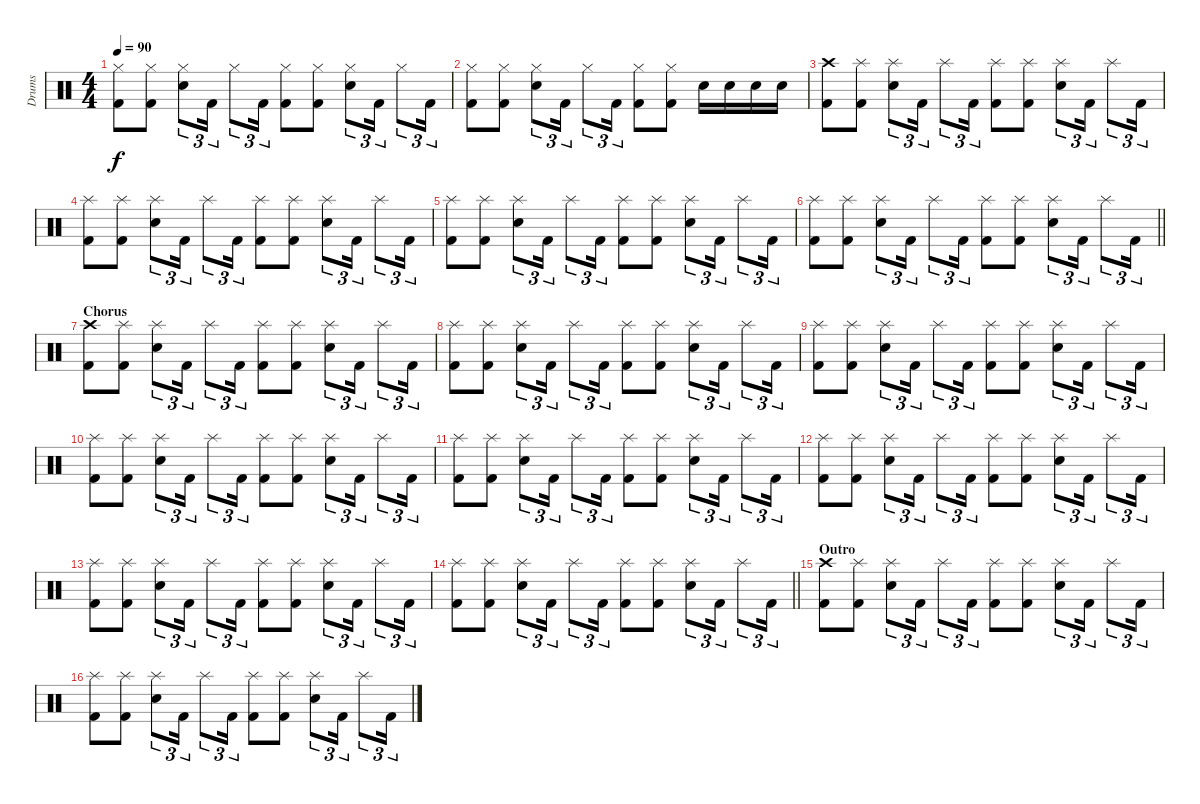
\track ("Drums" "Drums") {instrument percussion}
\staff {score}
\articulation defaults
\ts (4 4)
\tempo 90
\clef neutral
\ks c
("Hi-Hat (closed)" "Kick (hit) 2").8{dy f} ("Hi-Hat (closed)" "Kick (hit) 2").8 ("Hi-Hat (closed)" "Electric Snare (hit)").8{tu (3 2)} "Kick (hit) 2".16{tu (3 2)} "Hi-Hat (closed)".8{tu (3 2)} "Kick (hit) 2".16{tu (3 2)} ("Hi-Hat (closed)" "Kick (hit) 2").8 ("Hi-Hat (closed)" "Kick (hit) 2").8 ("Hi-Hat (closed)" "Electric Snare (hit)").8{tu (3 2)} "Kick (hit) 2".16{tu (3 2)} "Hi-Hat (closed)".8{tu (3 2)} "Kick (hit) 2".16{tu (3 2)} |
("Hi-Hat (closed)" "Kick (hit) 2").8 ("Hi-Hat (closed)" "Kick (hit) 2").8 ("Hi-Hat (closed)" "Electric Snare (hit)").8{tu (3 2)} "Kick (hit) 2".16{tu (3 2)} "Hi-Hat (closed)".8{tu (3 2)} "Kick (hit) 2".16{tu (3 2)} ("Hi-Hat (closed)" "Kick (hit) 2").8 ("Hi-Hat (closed)" "Kick (hit) 2").8 "Electric Snare (hit)".16 "Electric Snare (hit)".16 "Electric Snare (hit)".16 "Electric Snare (hit)".16 |
("Crash high (hit)" "Kick (hit) 2").8 ("Splash (hit)" "Kick (hit) 2").8 ("Splash (hit)" "Electric Snare (hit)").8{tu (3 2)} "Kick (hit) 2".16{tu (3 2)} "Splash (hit)".8{tu (3 2)} "Kick (hit) 2".16{tu (3 2)} ("Splash (hit)" "Kick (hit) 2").8 ("Splash (hit)" "Kick (hit) 2").8 ("Splash (hit)" "Electric Snare (hit)").8{tu (3 2)} "Kick (hit) 2".16{tu (3 2)} "Splash (hit)".8{tu (3 2)} "Kick (hit) 2".16{tu (3 2)} |
("Splash (hit)" "Kick (hit) 2").8 ("Splash (hit)" "Kick (hit) 2").8 ("Splash (hit)" "Electric Snare (hit)").8{tu (3 2)} "Kick (hit) 2".16{tu (3 2)} "Splash (hit)".8{tu (3 2)} "Kick (hit) 2".16{tu (3 2)} ("Splash (hit)" "Kick (hit) 2").8 ("Splash (hit)" "Kick (hit) 2").8 ("Splash (hit)" "Electric Snare (hit)").8{tu (3 2)} "Kick (hit) 2".16{tu (3 2)} "Splash (hit)".8{tu (3 2)} "Kick (hit) 2".16{tu (3 2)} |
("Splash (hit)" "Kick (hit) 2").8 ("Splash (hit)" "Kick (hit) 2").8 ("Splash (hit)" "Electric Snare (hit)").8{tu (3 2)} "Kick (hit) 2".16{tu (3 2)} "Splash (hit)".8{tu (3 2)} "Kick (hit) 2".16{tu (3 2)} ("Splash (hit)" "Kick (hit) 2").8 ("Splash (hit)" "Kick (hit) 2").8 ("Splash (hit)" "Electric Snare (hit)").8{tu (3 2)} "Kick (hit) 2".16{tu (3 2)} "Splash (hit)".8{tu (3 2)} "Kick (hit) 2".16{tu (3 2)} |
\barLineRight lightlight
("Splash (hit)" "Kick (hit) 2").8 ("Splash (hit)" "Kick (hit) 2").8 ("Splash (hit)" "Electric Snare (hit)").8{tu (3 2)} "Kick (hit) 2".16{tu (3 2)} "Splash (hit)".8{tu (3 2)} "Kick (hit) 2".16{tu (3 2)} ("Splash (hit)" "Kick (hit) 2").8 ("Splash (hit)" "Kick (hit) 2").8 ("Splash (hit)" "Electric Snare (hit)").8{tu (3 2)} "Kick (hit) 2".16{tu (3 2)} "Splash (hit)".8{tu (3 2)} "Kick (hit) 2".16{tu (3 2)} |
\section ("" "Chorus")
("Crash high (hit)" "Kick (hit) 2").8 ("Splash (hit)" "Kick (hit) 2").8 ("Splash (hit)" "Electric Snare (hit)").8{tu (3 2)} "Kick (hit) 2".16{tu (3 2)} "Splash (hit)".8{tu (3 2)} "Kick (hit) 2".16{tu (3 2)} ("Splash (hit)" "Kick (hit) 2").8 ("Splash (hit)" "Kick (hit) 2").8 ("Splash (hit)" "Electric Snare (hit)").8{tu (3 2)} "Kick (hit) 2".16{tu (3 2)} "Splash (hit)".8{tu (3 2)} "Kick (hit) 2".16{tu (3 2)} |
("Splash (hit)" "Kick (hit) 2").8 ("Splash (hit)" "Kick (hit) 2").8 ("Splash (hit)" "Electric Snare (hit)").8{tu (3 2)} "Kick (hit) 2".16{tu (3 2)} "Splash (hit)".8{tu (3 2)} "Kick (hit) 2".16{tu (3 2)} ("Splash (hit)" "Kick (hit) 2").8 ("Splash (hit)" "Kick (hit) 2").8 ("Splash (hit)" "Electric Snare (hit)").8{tu (3 2)} "Kick (hit) 2".16{tu (3 2)} "Splash (hit)".8{tu (3 2)} "Kick (hit) 2".16{tu (3 2)} |
("Splash (hit)" "Kick (hit) 2").8 ("Splash (hit)" "Kick (hit) 2").8 ("Splash (hit)" "Electric Snare (hit)").8{tu (3 2)} "Kick (hit) 2".16{tu (3 2)} "Splash (hit)".8{tu (3 2)} "Kick (hit) 2".16{tu (3 2)} ("Splash (hit)" "Kick (hit) 2").8 ("Splash (hit)" "Kick (hit) 2").8 ("Splash (hit)" "Electric Snare (hit)").8{tu (3 2)} "Kick (hit) 2".16{tu (3 2)} "Splash (hit)".8{tu (3 2)} "Kick (hit) 2".16{tu (3 2)} |
("Splash (hit)" "Kick (hit) 2").8 ("Splash (hit)" "Kick (hit) 2").8 ("Splash (hit)" "Electric Snare (hit)").8{tu (3 2)} "Kick (hit) 2".16{tu (3 2)} "Splash (hit)".8{tu (3 2)} "Kick (hit) 2".16{tu (3 2)} ("Splash (hit)" "Kick (hit) 2").8 ("Splash (hit)" "Kick (hit) 2").8 ("Splash (hit)" "Electric Snare (hit)").8{tu (3 2)} "Kick (hit) 2".16{tu (3 2)} "Splash (hit)".8{tu (3 2)} "Kick (hit) 2".16{tu (3 2)} |
("Splash (hit)" "Kick (hit) 2").8 ("Splash (hit)" "Kick (hit) 2").8 ("Splash (hit)" "Electric Snare (hit)").8{tu (3 2)} "Kick (hit) 2".16{tu (3 2)} "Splash (hit)".8{tu (3 2)} "Kick (hit) 2".16{tu (3 2)} ("Splash (hit)" "Kick (hit) 2").8 ("Splash (hit)" "Kick (hit) 2").8 ("Splash (hit)" "Electric Snare (hit)").8{tu (3 2)} "Kick (hit) 2".16{tu (3 2)} "Splash (hit)".8{tu (3 2)} "Kick (hit) 2".16{tu (3 2)} |
("Splash (hit)" "Kick (hit) 2").8 ("Splash (hit)" "Kick (hit) 2").8 ("Splash (hit)" "Electric Snare (hit)").8{tu (3 2)} "Kick (hit) 2".16{tu (3 2)} "Splash (hit)".8{tu (3 2)} "Kick (hit) 2".16{tu (3 2)} ("Splash (hit)" "Kick (hit) 2").8 ("Splash (hit)" "Kick (hit) 2").8 ("Splash (hit)" "Electric Snare (hit)").8{tu (3 2)} "Kick (hit) 2".16{tu (3 2)} "Splash (hit)".8{tu (3 2)} "Kick (hit) 2".16{tu (3 2)} |
("Splash (hit)" "Kick (hit) 2").8 ("Splash (hit)" "Kick (hit) 2").8 ("Splash (hit)" "Electric Snare (hit)").8{tu (3 2)} "Kick (hit) 2".16{tu (3 2)} "Splash (hit)".8{tu (3 2)} "Kick (hit) 2".16{tu (3 2)} ("Splash (hit)" "Kick (hit) 2").8 ("Splash (hit)" "Kick (hit) 2").8 ("Splash (hit)" "Electric Snare (hit)").8{tu (3 2)} "Kick (hit) 2".16{tu (3 2)} "Splash (hit)".8{tu (3 2)} "Kick (hit) 2".16{tu (3 2)} |
\barLineRight lightlight
("Splash (hit)" "Kick (hit) 2").8 ("Splash (hit)" "Kick (hit) 2").8 ("Splash (hit)" "Electric Snare (hit)").8{tu (3 2)} "Kick (hit) 2".16{tu (3 2)} "Splash (hit)".8{tu (3 2)} "Kick (hit) 2".16{tu (3 2)} ("Splash (hit)" "Kick (hit) 2").8 ("Splash (hit)" "Kick (hit) 2").8 ("Splash (hit)" "Electric Snare (hit)").8{tu (3 2)} "Kick (hit) 2".16{tu (3 2)} "Splash (hit)".8{tu (3 2)} "Kick (hit) 2".16{tu (3 2)} |
\section ("" "Outro")
("Crash high (hit)" "Kick (hit) 2").8 ("Splash (hit)" "Kick (hit) 2").8 ("Splash (hit)" "Electric Snare (hit)").8{tu (3 2)} "Kick (hit) 2".16{tu (3 2)} "Splash (hit)".8{tu (3 2)} "Kick (hit) 2".16{tu (3 2)} ("Splash (hit)" "Kick (hit) 2").8 ("Splash (hit)" "Kick (hit) 2").8 ("Splash (hit)" "Electric Snare (hit)").8{tu (3 2)} "Kick (hit) 2".16{tu (3 2)} "Splash (hit)".8{tu (3 2)} "Kick (hit) 2".16{tu (3 2)} |
("Splash (hit)" "Kick (hit) 2").8 ("Splash (hit)" "Kick (hit) 2").8 ("Splash (hit)" "Electric Snare (hit)").8{tu (3 2)} "Kick (hit) 2".16{tu (3 2)} "Splash (hit)".8{tu (3 2)} "Kick (hit) 2".16{tu (3 2)} ("Splash (hit)" "Kick (hit) 2").8 ("Splash (hit)" "Kick (hit) 2").8 ("Splash (hit)" "Electric Snare (hit)").8{tu (3 2)} "Kick (hit) 2".16{tu (3 2)} "Splash (hit)".8{tu (3 2)} "Kick (hit) 2".16{tu (3 2)}
